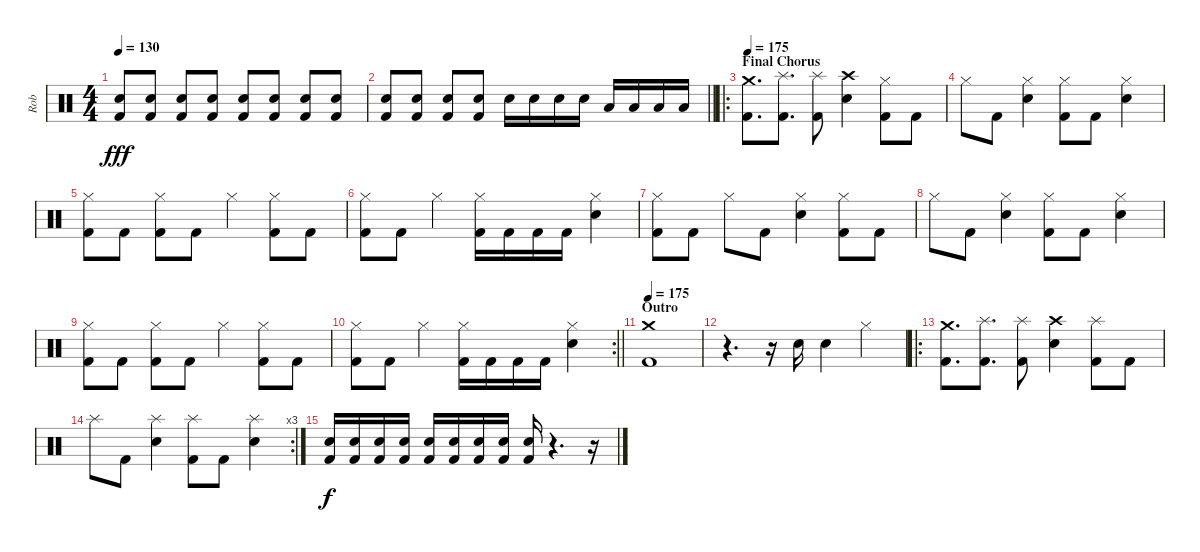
\track ("Rob" "Rob") {instrument percussion}
\staff {score}
\articulation defaults
\ts (4 4)
\tempo 130
\clef neutral
\ks c
("Electric Snare (hit)" "Kick (hit) 2").8{dy fff} ("Electric Snare (hit)" "Kick (hit) 2").8 ("Electric Snare (hit)" "Kick (hit) 2").8 ("Electric Snare (hit)" "Kick (hit) 2").8 ("Electric Snare (hit)" "Kick (hit) 2").8 ("Electric Snare (hit)" "Kick (hit) 2").8 ("Electric Snare (hit)" "Kick (hit) 2").8 ("Electric Snare (hit)" "Kick (hit) 2").8 |
\barLineRight lightlight
("Electric Snare (hit)" "Kick (hit) 2").8 ("Electric Snare (hit)" "Kick (hit) 2").8 ("Electric Snare (hit)" "Kick (hit) 2").8 ("Electric Snare (hit)" "Kick (hit) 2").8 "Electric Snare (hit)".16 "Electric Snare (hit)".16 "Electric Snare (hit)".16 "Electric Snare (hit)".16 "Low Tom (hit)".16 "Low Tom (hit)".16 "Low Tom (hit)".16 "Low Tom (hit)".16 |
\ro
\section ("" "Final Chorus")
\tempo 175
("Crash medium (hit)" "Kick (hit) 2").8{d} ("Splash (hit)" "Kick (hit) 2").8{d} ("Splash (hit)" "Kick (hit) 2").8 ("Crash high (hit)" "Electric Snare (hit)").4 ("Hi-Hat (closed)" "Kick (hit) 2").8 "Kick (hit) 2".8 |
"Hi-Hat (closed)".8 "Kick (hit) 2".8 ("Hi-Hat (closed)" "Electric Snare (hit)").4 ("Hi-Hat (closed)" "Kick (hit) 2").8 "Kick (hit) 2".8 ("Hi-Hat (closed)" "Electric Snare (hit)").4 |
("Hi-Hat (closed)" "Kick (hit) 2").8 "Kick (hit) 2".8 ("Hi-Hat (closed)" "Kick (hit) 2").8 "Kick (hit) 2".8 "Hi-Hat (closed)".4 ("Hi-Hat (closed)" "Kick (hit) 2").8 "Kick (hit) 2".8 |
("Hi-Hat (closed)" "Kick (hit) 2").8 "Kick (hit) 2".8 "Hi-Hat (closed)".4 ("Hi-Hat (closed)" "Kick (hit) 2").16 "Kick (hit) 2".16 "Kick (hit) 2".16 "Kick (hit) 2".16 ("Hi-Hat (closed)" "Electric Snare (hit)").4 |
("Hi-Hat (closed)" "Kick (hit) 2").8 "Kick (hit) 2".8 "Hi-Hat (closed)".8 "Kick (hit) 2".8 ("Hi-Hat (closed)" "Electric Snare (hit)").4 ("Hi-Hat (closed)" "Kick (hit) 2").8 "Kick (hit) 2".8 |
"Hi-Hat (closed)".8 "Kick (hit) 2".8 ("Hi-Hat (closed)" "Electric Snare (hit)").4 ("Hi-Hat (closed)" "Kick (hit) 2").8 "Kick (hit) 2".8 ("Hi-Hat (closed)" "Electric Snare (hit)").4 |
("Hi-Hat (closed)" "Kick (hit) 2").8 "Kick (hit) 2".8 ("Hi-Hat (closed)" "Kick (hit) 2").8 "Kick (hit) 2".8 "Hi-Hat (closed)".4 ("Hi-Hat (closed)" "Kick (hit) 2").8 "Kick (hit) 2".8 |
\rc 2
\barLineRight lightlight
("Hi-Hat (closed)" "Kick (hit) 2").8 "Kick (hit) 2".8 "Hi-Hat (closed)".4 ("Hi-Hat (closed)" "Kick (hit) 2").16 "Kick (hit) 2".16 "Kick (hit) 2".16 "Kick (hit) 2".16 ("Hi-Hat (closed)" "Electric Snare (hit)").4 |
\section ("" "Outro")
\tempo 175
("Crash medium (hit)" "Kick (hit) 2").1 |
r.4{d} r.16 "Electric Snare (hit)".16 "Electric Snare (hit)".4 "Hi-Hat (closed)".4 |
\ro
("Crash medium (hit)" "Kick (hit) 2").8{d} ("Splash (hit)" "Kick (hit) 2").8{d} ("Splash (hit)" "Kick (hit) 2").8 ("Crash high (hit)" "Electric Snare (hit)").4 ("Splash (hit)" "Kick (hit) 2").8 "Kick (hit) 2".8 |
\rc 3 "Splash (hit)".8 "Kick (hit) 2".8
("Splash (hit)" "Electric Snare (hit)").4 ("Splash (hit)" "Kick (hit) 2").8 "Kick (hit) 2".8 ("Splash (hit)" "Electric Snare (hit)").4 |
("Electric Snare (hit)" "Kick (hit) 2").16{dy f} ("Electric Snare (hit)" "Kick (hit) 2").16 ("Electric Snare (hit)" "Kick (hit) 2").16 ("Electric Snare (hit)" "Kick (hit) 2").16 ("Electric Snare (hit)" "Kick (hit) 2").16 ("Electric Snare (hit)" "Kick (hit) 2").16 ("Electric Snare (hit)" "Kick (hit) 2").16 ("Electric Snare (hit)" "Kick (hit) 2").16 ("Electric Snare (hit)" "Kick (hit) 2").16 r.4{d} r.16
